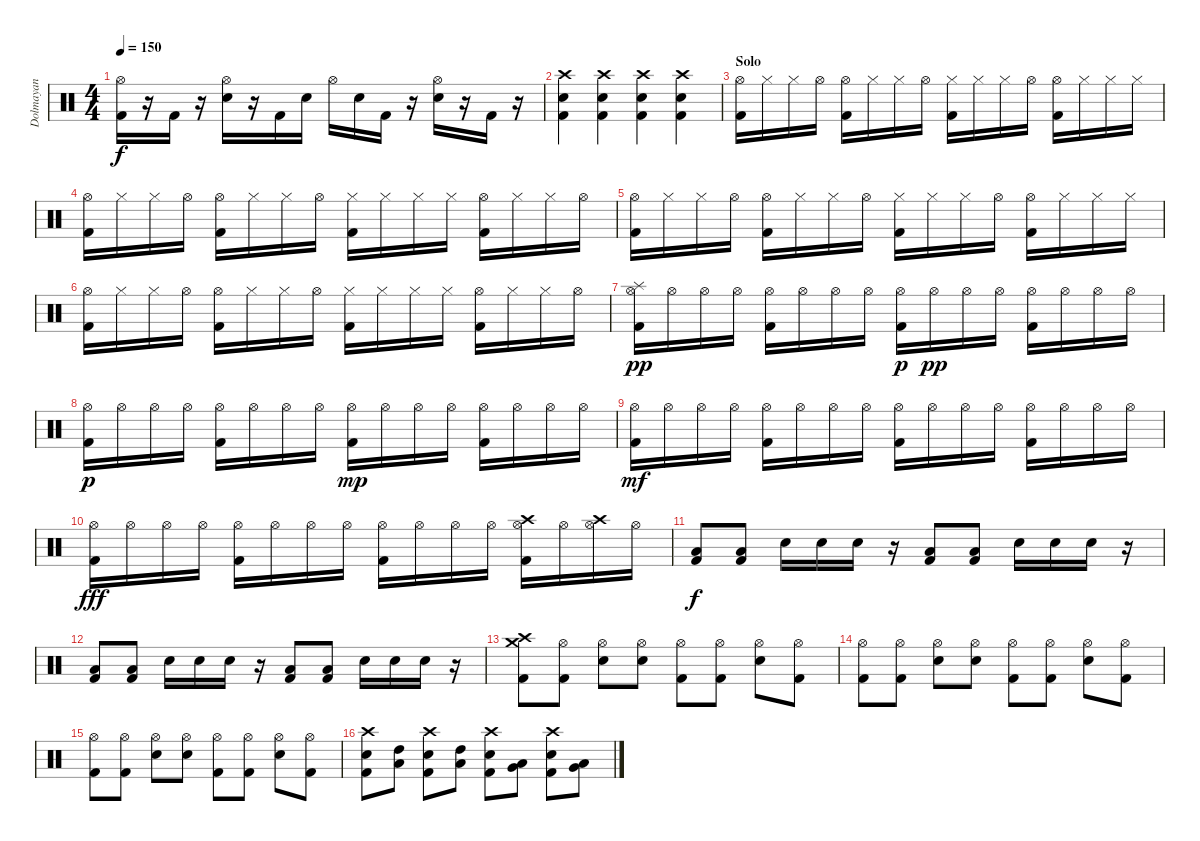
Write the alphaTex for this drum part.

\track ("Dolmayan" "Dolmayan") {instrument percussion}
\staff {score}
\articulation defaults
\ts (4 4)
\tempo 150
\clef neutral
\ks c
("Hi-Hat (open)" "Kick (hit) 2").16{dy f} r.16 "Kick (hit) 2".16 r.16 ("Hi-Hat (open)" "Electric Snare (hit)").16 r.16 "Kick (hit) 2".16 "Electric Snare (hit)".16 "Hi-Hat (open)".16 "Electric Snare (hit)".16 "Kick (hit) 2".16 r.16 ("Hi-Hat (open)" "Electric Snare (hit)").16 r.16 "Kick (hit) 2".16 r.16 |
("Crash high (hit)" "Electric Snare (hit)" "Kick (hit) 2").4 ("Crash high (hit)" "Electric Snare (hit)" "Kick (hit) 2").4 ("Crash high (hit)" "Electric Snare (hit)" "Kick (hit) 2").4 ("Crash high (hit)" "Electric Snare (hit)" "Kick (hit) 2").4 |
\section ("" "Solo")
("Hi-Hat (open)" "Kick (hit) 2").16 "Hi-Hat (closed)".16 "Hi-Hat (closed)".16 "Hi-Hat (open)".16 ("Hi-Hat (open)" "Kick (hit) 2").16 "Hi-Hat (closed)".16 "Hi-Hat (closed)".16 "Hi-Hat (open)".16 ("Hi-Hat (closed)" "Kick (hit) 2").16 "Hi-Hat (closed)".16 "Hi-Hat (closed)".16 "Hi-Hat (open)".16 ("Hi-Hat (open)" "Kick (hit) 2").16 "Hi-Hat (closed)".16 "Hi-Hat (closed)".16 "Hi-Hat (closed)".16 |
("Hi-Hat (open)" "Kick (hit) 2").16 "Hi-Hat (closed)".16 "Hi-Hat (closed)".16 "Hi-Hat (open)".16 ("Hi-Hat (open)" "Kick (hit) 2").16 "Hi-Hat (closed)".16 "Hi-Hat (closed)".16 "Hi-Hat (open)".16 ("Hi-Hat (closed)" "Kick (hit) 2").16 "Hi-Hat (closed)".16 "Hi-Hat (closed)".16 "Hi-Hat (closed)".16 ("Hi-Hat (open)" "Kick (hit) 2").16 "Hi-Hat (closed)".16 "Hi-Hat (closed)".16 "Hi-Hat (open)".16 |
("Hi-Hat (open)" "Kick (hit) 2").16 "Hi-Hat (closed)".16 "Hi-Hat (closed)".16 "Hi-Hat (open)".16 ("Hi-Hat (open)" "Kick (hit) 2").16 "Hi-Hat (closed)".16 "Hi-Hat (closed)".16 "Hi-Hat (open)".16 ("Hi-Hat (closed)" "Kick (hit) 2").16 "Hi-Hat (closed)".16 "Hi-Hat (closed)".16 "Hi-Hat (open)".16 ("Hi-Hat (open)" "Kick (hit) 2").16 "Hi-Hat (closed)".16 "Hi-Hat (closed)".16 "Hi-Hat (closed)".16 |
("Hi-Hat (open)" "Kick (hit) 2").16 "Hi-Hat (closed)".16 "Hi-Hat (closed)".16 "Hi-Hat (open)".16 ("Hi-Hat (open)" "Kick (hit) 2").16 "Hi-Hat (closed)".16 "Hi-Hat (closed)".16 "Hi-Hat (open)".16 ("Hi-Hat (closed)" "Kick (hit) 2").16 "Hi-Hat (closed)".16 "Hi-Hat (closed)".16 "Hi-Hat (closed)".16 ("Hi-Hat (open)" "Kick (hit) 2").16 "Hi-Hat (closed)".16 "Hi-Hat (closed)".16 "Hi-Hat (open)".16 |
("Splash (hit)" "Hi-Hat (open)" "Kick (hit) 2").16{dy pp} "Hi-Hat (open)".16 "Hi-Hat (open)".16 "Hi-Hat (open)".16 ("Hi-Hat (open)" "Kick (hit) 2").16 "Hi-Hat (open)".16 "Hi-Hat (open)".16 "Hi-Hat (open)".16 ("Hi-Hat (open)" "Kick (hit) 2").16{dy p} "Hi-Hat (open)".16{dy pp} "Hi-Hat (open)".16 "Hi-Hat (open)".16 ("Hi-Hat (open)" "Kick (hit) 2").16 "Hi-Hat (open)".16 "Hi-Hat (open)".16 "Hi-Hat (open)".16 |
("Hi-Hat (open)" "Kick (hit) 2").16{dy p} "Hi-Hat (open)".16 "Hi-Hat (open)".16 "Hi-Hat (open)".16 ("Hi-Hat (open)" "Kick (hit) 2").16 "Hi-Hat (open)".16 "Hi-Hat (open)".16 "Hi-Hat (open)".16 ("Hi-Hat (open)" "Kick (hit) 2").16{dy mp} "Hi-Hat (open)".16 "Hi-Hat (open)".16 "Hi-Hat (open)".16 ("Hi-Hat (open)" "Kick (hit) 2").16 "Hi-Hat (open)".16 "Hi-Hat (open)".16 "Hi-Hat (open)".16 |
("Hi-Hat (open)" "Kick (hit) 2").16{dy mf} "Hi-Hat (open)".16 "Hi-Hat (open)".16 "Hi-Hat (open)".16 ("Hi-Hat (open)" "Kick (hit) 2").16 "Hi-Hat (open)".16 "Hi-Hat (open)".16 "Hi-Hat (open)".16 ("Hi-Hat (open)" "Kick (hit) 2").16 "Hi-Hat (open)".16 "Hi-Hat (open)".16 "Hi-Hat (open)".16 ("Hi-Hat (open)" "Kick (hit) 2").16 "Hi-Hat (open)".16 "Hi-Hat (open)".16 "Hi-Hat (open)".16 |
("Hi-Hat (open)" "Kick (hit) 2").16{dy fff} "Hi-Hat (open)".16 "Hi-Hat (open)".16 "Hi-Hat (open)".16 ("Hi-Hat (open)" "Kick (hit) 2").16 "Hi-Hat (open)".16 "Hi-Hat (open)".16 "Hi-Hat (open)".16 ("Hi-Hat (open)" "Kick (hit) 2").16 "Hi-Hat (open)".16 "Hi-Hat (open)".16 "Hi-Hat (open)".16 ("Crash high (hit)" "Hi-Hat (open)" "Kick (hit) 2").16 "Hi-Hat (open)".16 ("Crash high (hit)" "Hi-Hat (open)").16 "Hi-Hat (open)".16 |
("Low Floor Tom (hit)" "Kick (hit) 2").8{dy f} ("Low Floor Tom (hit)" "Kick (hit) 2").8 "Electric Snare (hit)".16 "Electric Snare (hit)".16 "Electric Snare (hit)".16 r.16 ("Low Floor Tom (hit)" "Kick (hit) 2").8 ("Low Floor Tom (hit)" "Kick (hit) 2").8 "Electric Snare (hit)".16 "Electric Snare (hit)".16 "Electric Snare (hit)".16 r.16 |
("Low Floor Tom (hit)" "Kick (hit) 2").8 ("Low Floor Tom (hit)" "Kick (hit) 2").8 "Electric Snare (hit)".16 "Electric Snare (hit)".16 "Electric Snare (hit)".16 r.16 ("Low Floor Tom (hit)" "Kick (hit) 2").8 ("Low Floor Tom (hit)" "Kick (hit) 2").8 "Electric Snare (hit)".16 "Electric Snare (hit)".16 "Electric Snare (hit)".16 r.16 |
("Crash high (hit)" "Crash medium (hit)" "Kick (hit) 2").8 ("Hi-Hat (open)" "Kick (hit) 2").8 ("Hi-Hat (open)" "Electric Snare (hit)").8 ("Hi-Hat (open)" "Electric Snare (hit)").8 ("Hi-Hat (open)" "Kick (hit) 2").8 ("Hi-Hat (open)" "Kick (hit) 2").8 ("Hi-Hat (open)" "Electric Snare (hit)").8 ("Hi-Hat (open)" "Kick (hit) 2").8 |
("Hi-Hat (open)" "Kick (hit) 2").8 ("Hi-Hat (open)" "Kick (hit) 2").8 ("Hi-Hat (open)" "Electric Snare (hit)").8 ("Hi-Hat (open)" "Electric Snare (hit)").8 ("Hi-Hat (open)" "Kick (hit) 2").8 ("Hi-Hat (open)" "Kick (hit) 2").8 ("Hi-Hat (open)" "Electric Snare (hit)").8 ("Hi-Hat (open)" "Kick (hit) 2").8 |
("Hi-Hat (open)" "Kick (hit) 2").8 ("Hi-Hat (open)" "Kick (hit) 2").8 ("Hi-Hat (open)" "Electric Snare (hit)").8 ("Hi-Hat (open)" "Electric Snare (hit)").8 ("Hi-Hat (open)" "Kick (hit) 2").8 ("Hi-Hat (open)" "Kick (hit) 2").8 ("Hi-Hat (open)" "Electric Snare (hit)").8 ("Hi-Hat (open)" "Kick (hit) 2").8 |
("Crash high (hit)" "Electric Snare (hit)" "Kick (hit) 2").8 ("High Tom (hit)" "Low Tom (hit)").8 ("Crash high (hit)" "Electric Snare (hit)" "Kick (hit) 2").8 ("High Tom (hit)" "Low Tom (hit)").8 ("Crash high (hit)" "Electric Snare (hit)" "Kick (hit) 2").8 ("Low Tom (hit)" "Very Low Tom (hit)").8 ("Crash high (hit)" "Electric Snare (hit)" "Kick (hit) 2").8 ("Very Low Tom (hit)" "Low Floor Tom (hit)").8
